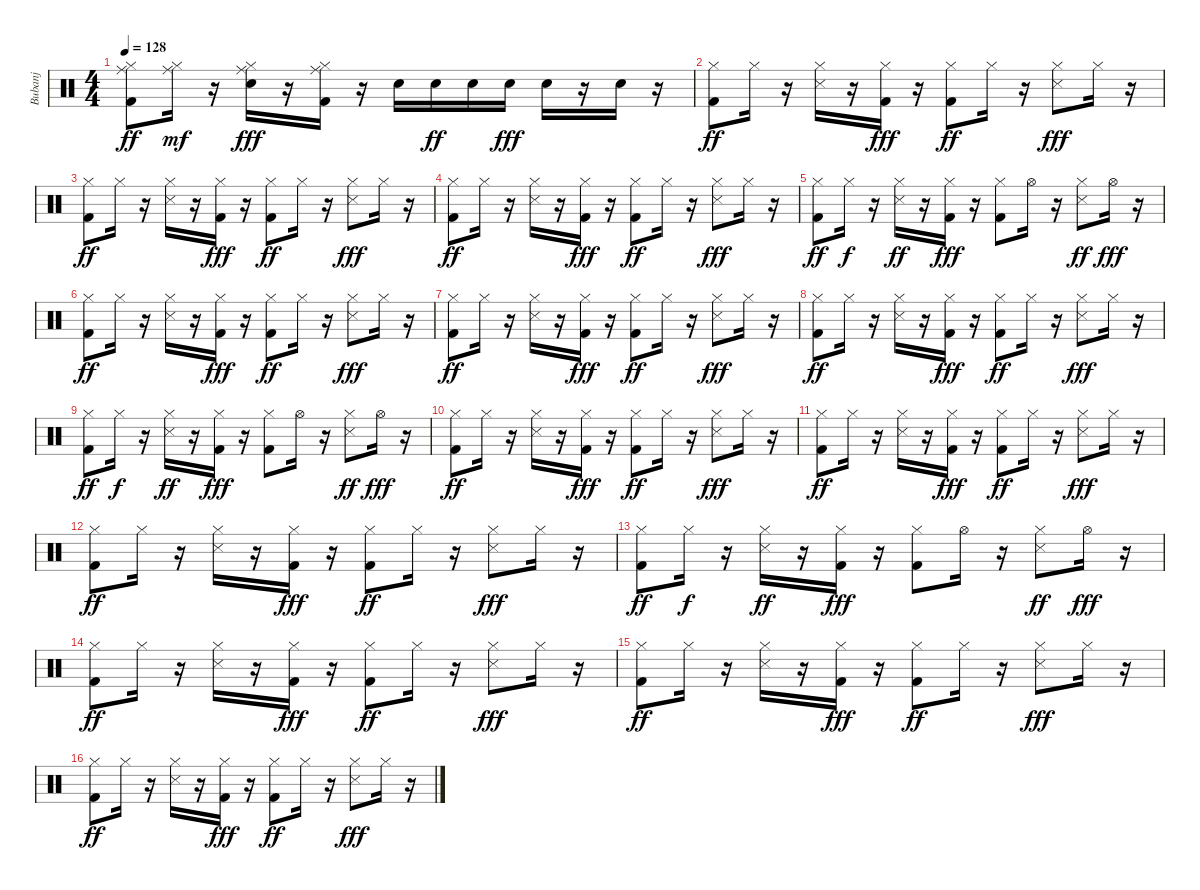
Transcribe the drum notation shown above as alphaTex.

\track ("Bubanj" "Bubanj") {instrument percussion}
\staff {score}
\articulation defaults
\ts (4 4)
\tempo 128
\clef neutral
\ks c
("Kick (hit) 2" "Hi-Hat (closed)" "Ride (middle)").8{dy ff} ("Hi-Hat (closed)" "Ride (middle)").16{dy mf} r.16 ("Electric Snare (hit)" "Hi-Hat (closed)" "Ride (middle)").16{dy fff} r.16 ("Kick (hit) 2" "Hi-Hat (closed)" "Ride (middle)").16 r.16 "Electric Snare (hit)".16 "Electric Snare (hit)".16{dy ff} "Electric Snare (hit)".16 "Electric Snare (hit)".16{dy fff} "Electric Snare (hit)".16 r.16 "Electric Snare (hit)".16 r.16 |
("Kick (hit) 2" "Hi-Hat (closed)").8{dy ff} "Hi-Hat (closed)".16 r.16 ("Snare (side stick) 3" "Hi-Hat (closed)").16 r.16 ("Hi-Hat (closed)" "Kick (hit) 2").16{dy fff} r.16 ("Hi-Hat (closed)" "Kick (hit) 2").8{dy ff} "Hi-Hat (closed)".16 r.16 ("Hi-Hat (closed)" "Snare (side stick) 3").8{dy fff} "Hi-Hat (closed)".16 r.16 |
("Kick (hit) 2" "Hi-Hat (closed)").8{dy ff} "Hi-Hat (closed)".16 r.16 ("Snare (side stick) 3" "Hi-Hat (closed)").16 r.16 ("Hi-Hat (closed)" "Kick (hit) 2").16{dy fff} r.16 ("Hi-Hat (closed)" "Kick (hit) 2").8{dy ff} "Hi-Hat (closed)".16 r.16 ("Hi-Hat (closed)" "Snare (side stick) 3").8{dy fff} "Hi-Hat (closed)".16 r.16 |
("Kick (hit) 2" "Hi-Hat (closed)").8{dy ff} "Hi-Hat (closed)".16 r.16 ("Snare (side stick) 3" "Hi-Hat (closed)").16 r.16 ("Hi-Hat (closed)" "Kick (hit) 2").16{dy fff} r.16 ("Hi-Hat (closed)" "Kick (hit) 2").8{dy ff} "Hi-Hat (closed)".16 r.16 ("Hi-Hat (closed)" "Snare (side stick) 3").8{dy fff} "Hi-Hat (closed)".16 r.16 |
("Kick (hit) 2" "Hi-Hat (closed)").8{dy ff} "Hi-Hat (closed)".16{dy f} r.16 ("Hi-Hat (closed)" "Snare (side stick) 3").16{dy ff} r.16 ("Kick (hit) 2" "Hi-Hat (closed)").16{dy fff} r.16 ("Hi-Hat (closed)" "Kick (hit) 2").8 "Hi-Hat (open)".16 r.16 ("Hi-Hat (closed)" "Snare (side stick) 3").8{dy ff} "Hi-Hat (open)".16{dy fff} r.16 |
("Kick (hit) 2" "Hi-Hat (closed)").8{dy ff} "Hi-Hat (closed)".16 r.16 ("Snare (side stick) 3" "Hi-Hat (closed)").16 r.16 ("Hi-Hat (closed)" "Kick (hit) 2").16{dy fff} r.16 ("Hi-Hat (closed)" "Kick (hit) 2").8{dy ff} "Hi-Hat (closed)".16 r.16 ("Hi-Hat (closed)" "Snare (side stick) 3").8{dy fff} "Hi-Hat (closed)".16 r.16 |
("Kick (hit) 2" "Hi-Hat (closed)").8{dy ff} "Hi-Hat (closed)".16 r.16 ("Snare (side stick) 3" "Hi-Hat (closed)").16 r.16 ("Hi-Hat (closed)" "Kick (hit) 2").16{dy fff} r.16 ("Hi-Hat (closed)" "Kick (hit) 2").8{dy ff} "Hi-Hat (closed)".16 r.16 ("Hi-Hat (closed)" "Snare (side stick) 3").8{dy fff} "Hi-Hat (closed)".16 r.16 |
("Kick (hit) 2" "Hi-Hat (closed)").8{dy ff} "Hi-Hat (closed)".16 r.16 ("Snare (side stick) 3" "Hi-Hat (closed)").16 r.16 ("Hi-Hat (closed)" "Kick (hit) 2").16{dy fff} r.16 ("Hi-Hat (closed)" "Kick (hit) 2").8{dy ff} "Hi-Hat (closed)".16 r.16 ("Hi-Hat (closed)" "Snare (side stick) 3").8{dy fff} "Hi-Hat (closed)".16 r.16 |
("Kick (hit) 2" "Hi-Hat (closed)").8{dy ff} "Hi-Hat (closed)".16{dy f} r.16 ("Hi-Hat (closed)" "Snare (side stick) 3").16{dy ff} r.16 ("Kick (hit) 2" "Hi-Hat (closed)").16{dy fff} r.16 ("Hi-Hat (closed)" "Kick (hit) 2").8 "Hi-Hat (open)".16 r.16 ("Hi-Hat (closed)" "Snare (side stick) 3").8{dy ff} "Hi-Hat (open)".16{dy fff} r.16 |
("Kick (hit) 2" "Hi-Hat (closed)").8{dy ff} "Hi-Hat (closed)".16 r.16 ("Snare (side stick) 3" "Hi-Hat (closed)").16 r.16 ("Hi-Hat (closed)" "Kick (hit) 2").16{dy fff} r.16 ("Hi-Hat (closed)" "Kick (hit) 2").8{dy ff} "Hi-Hat (closed)".16 r.16 ("Hi-Hat (closed)" "Snare (side stick) 3").8{dy fff} "Hi-Hat (closed)".16 r.16 |
("Kick (hit) 2" "Hi-Hat (closed)").8{dy ff} "Hi-Hat (closed)".16 r.16 ("Snare (side stick) 3" "Hi-Hat (closed)").16 r.16 ("Hi-Hat (closed)" "Kick (hit) 2").16{dy fff} r.16 ("Hi-Hat (closed)" "Kick (hit) 2").8{dy ff} "Hi-Hat (closed)".16 r.16 ("Hi-Hat (closed)" "Snare (side stick) 3").8{dy fff} "Hi-Hat (closed)".16 r.16 |
("Kick (hit) 2" "Hi-Hat (closed)").8{dy ff} "Hi-Hat (closed)".16 r.16 ("Snare (side stick) 3" "Hi-Hat (closed)").16 r.16 ("Hi-Hat (closed)" "Kick (hit) 2").16{dy fff} r.16 ("Hi-Hat (closed)" "Kick (hit) 2").8{dy ff} "Hi-Hat (closed)".16 r.16 ("Hi-Hat (closed)" "Snare (side stick) 3").8{dy fff} "Hi-Hat (closed)".16 r.16 |
("Kick (hit) 2" "Hi-Hat (closed)").8{dy ff} "Hi-Hat (closed)".16{dy f} r.16 ("Hi-Hat (closed)" "Snare (side stick) 3").16{dy ff} r.16 ("Kick (hit) 2" "Hi-Hat (closed)").16{dy fff} r.16 ("Hi-Hat (closed)" "Kick (hit) 2").8 "Hi-Hat (open)".16 r.16 ("Hi-Hat (closed)" "Snare (side stick) 3").8{dy ff} "Hi-Hat (open)".16{dy fff} r.16 |
("Kick (hit) 2" "Hi-Hat (closed)").8{dy ff} "Hi-Hat (closed)".16 r.16 ("Snare (side stick) 3" "Hi-Hat (closed)").16 r.16 ("Hi-Hat (closed)" "Kick (hit) 2").16{dy fff} r.16 ("Hi-Hat (closed)" "Kick (hit) 2").8{dy ff} "Hi-Hat (closed)".16 r.16 ("Hi-Hat (closed)" "Snare (side stick) 3").8{dy fff} "Hi-Hat (closed)".16 r.16 |
("Kick (hit) 2" "Hi-Hat (closed)").8{dy ff} "Hi-Hat (closed)".16 r.16 ("Snare (side stick) 3" "Hi-Hat (closed)").16 r.16 ("Hi-Hat (closed)" "Kick (hit) 2").16{dy fff} r.16 ("Hi-Hat (closed)" "Kick (hit) 2").8{dy ff} "Hi-Hat (closed)".16 r.16 ("Hi-Hat (closed)" "Snare (side stick) 3").8{dy fff} "Hi-Hat (closed)".16 r.16 |
("Kick (hit) 2" "Hi-Hat (closed)").8{dy ff} "Hi-Hat (closed)".16 r.16 ("Snare (side stick) 3" "Hi-Hat (closed)").16 r.16 ("Hi-Hat (closed)" "Kick (hit) 2").16{dy fff} r.16 ("Hi-Hat (closed)" "Kick (hit) 2").8{dy ff} "Hi-Hat (closed)".16 r.16 ("Hi-Hat (closed)" "Snare (side stick) 3").8{dy fff} "Hi-Hat (closed)".16 r.16
